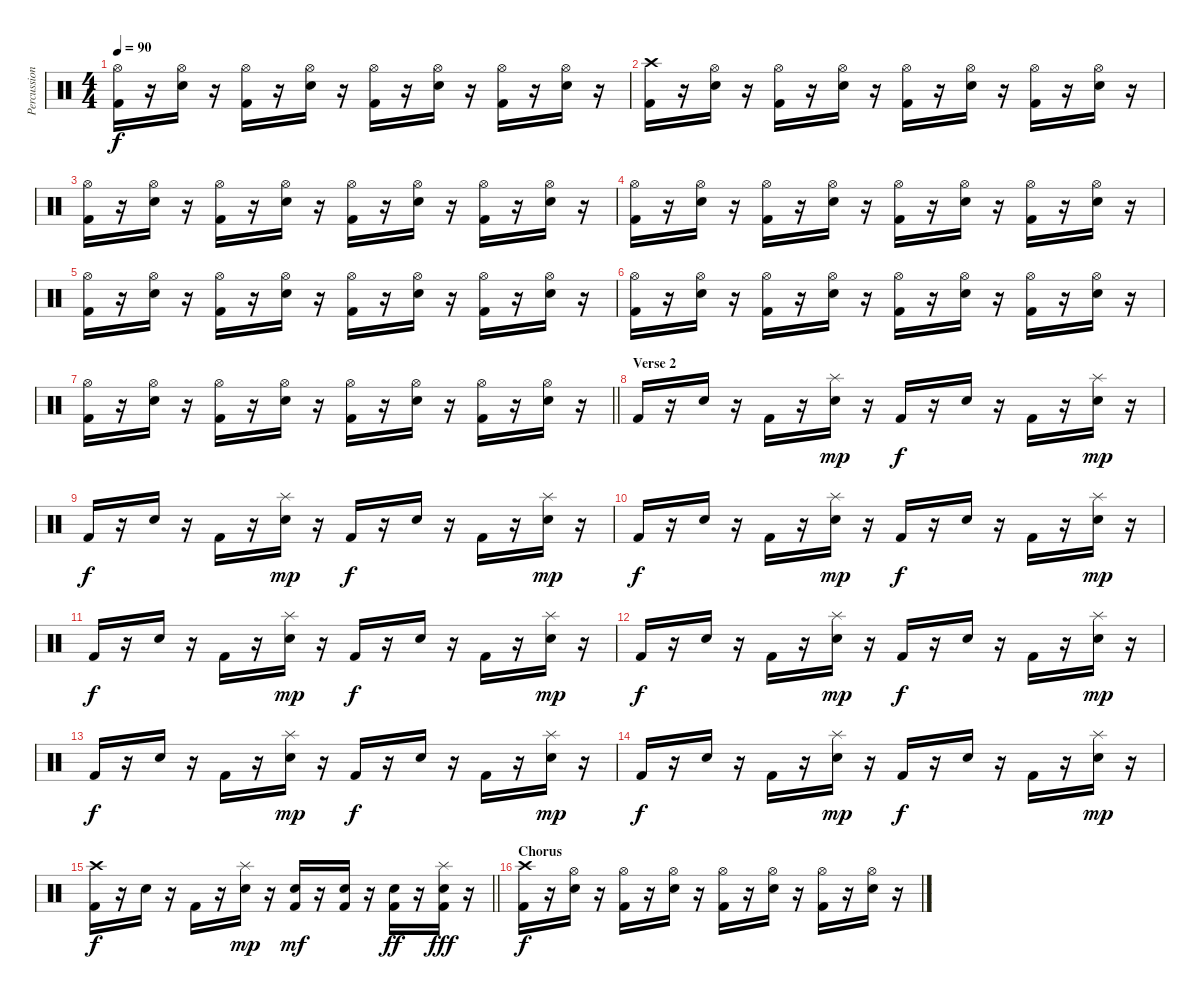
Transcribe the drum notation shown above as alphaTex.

\track ("Percussion" "Percussion") {instrument percussion}
\staff {score}
\articulation defaults
\ts (4 4)
\tempo 90
\clef neutral
\ks c
("Hi-Hat (open)" "Kick (hit) 2").16{dy f} r.16 ("Hi-Hat (open)" "Electric Snare (hit)").16 r.16 ("Hi-Hat (open)" "Kick (hit) 2").16 r.16 ("Hi-Hat (open)" "Electric Snare (hit)").16 r.16 ("Hi-Hat (open)" "Kick (hit) 2").16 r.16 ("Hi-Hat (open)" "Electric Snare (hit)").16 r.16 ("Hi-Hat (open)" "Kick (hit) 2").16 r.16 ("Hi-Hat (open)" "Electric Snare (hit)").16 r.16 |
("Crash high (hit)" "Kick (hit) 2").16 r.16 ("Hi-Hat (open)" "Electric Snare (hit)").16 r.16 ("Hi-Hat (open)" "Kick (hit) 2").16 r.16 ("Hi-Hat (open)" "Electric Snare (hit)").16 r.16 ("Hi-Hat (open)" "Kick (hit) 2").16 r.16 ("Hi-Hat (open)" "Electric Snare (hit)").16 r.16 ("Hi-Hat (open)" "Kick (hit) 2").16 r.16 ("Hi-Hat (open)" "Electric Snare (hit)").16 r.16 |
("Hi-Hat (open)" "Kick (hit) 2").16 r.16 ("Hi-Hat (open)" "Electric Snare (hit)").16 r.16 ("Hi-Hat (open)" "Kick (hit) 2").16 r.16 ("Hi-Hat (open)" "Electric Snare (hit)").16 r.16 ("Hi-Hat (open)" "Kick (hit) 2").16 r.16 ("Hi-Hat (open)" "Electric Snare (hit)").16 r.16 ("Hi-Hat (open)" "Kick (hit) 2").16 r.16 ("Hi-Hat (open)" "Electric Snare (hit)").16 r.16 |
("Hi-Hat (open)" "Kick (hit) 2").16 r.16 ("Hi-Hat (open)" "Electric Snare (hit)").16 r.16 ("Hi-Hat (open)" "Kick (hit) 2").16 r.16 ("Hi-Hat (open)" "Electric Snare (hit)").16 r.16 ("Hi-Hat (open)" "Kick (hit) 2").16 r.16 ("Hi-Hat (open)" "Electric Snare (hit)").16 r.16 ("Hi-Hat (open)" "Kick (hit) 2").16 r.16 ("Hi-Hat (open)" "Electric Snare (hit)").16 r.16 |
("Hi-Hat (open)" "Kick (hit) 2").16 r.16 ("Hi-Hat (open)" "Electric Snare (hit)").16 r.16 ("Hi-Hat (open)" "Kick (hit) 2").16 r.16 ("Hi-Hat (open)" "Electric Snare (hit)").16 r.16 ("Hi-Hat (open)" "Kick (hit) 2").16 r.16 ("Hi-Hat (open)" "Electric Snare (hit)").16 r.16 ("Hi-Hat (open)" "Kick (hit) 2").16 r.16 ("Hi-Hat (open)" "Electric Snare (hit)").16 r.16 |
("Hi-Hat (open)" "Kick (hit) 2").16 r.16 ("Hi-Hat (open)" "Electric Snare (hit)").16 r.16 ("Hi-Hat (open)" "Kick (hit) 2").16 r.16 ("Hi-Hat (open)" "Electric Snare (hit)").16 r.16 ("Hi-Hat (open)" "Kick (hit) 2").16 r.16 ("Hi-Hat (open)" "Electric Snare (hit)").16 r.16 ("Hi-Hat (open)" "Kick (hit) 2").16 r.16 ("Hi-Hat (open)" "Electric Snare (hit)").16 r.16 |
\barLineRight lightlight
("Hi-Hat (open)" "Kick (hit) 2").16 r.16 ("Hi-Hat (open)" "Electric Snare (hit)").16 r.16 ("Hi-Hat (open)" "Kick (hit) 2").16 r.16 ("Hi-Hat (open)" "Electric Snare (hit)").16 r.16 ("Hi-Hat (open)" "Kick (hit) 2").16 r.16 ("Hi-Hat (open)" "Electric Snare (hit)").16 r.16 ("Hi-Hat (open)" "Kick (hit) 2").16 r.16 ("Hi-Hat (open)" "Electric Snare (hit)").16 r.16 |
\section ("" "Verse 2")
"Kick (hit) 2".16 r.16 "Electric Snare (hit)".16 r.16 "Kick (hit) 2".16 r.16 ("Splash (hit)" "Electric Snare (hit)").16{dy mp} r.16 "Kick (hit) 2".16{dy f} r.16 "Electric Snare (hit)".16 r.16 "Kick (hit) 2".16 r.16 ("Splash (hit)" "Electric Snare (hit)").16{dy mp} r.16 |
"Kick (hit) 2".16{dy f} r.16 "Electric Snare (hit)".16 r.16 "Kick (hit) 2".16 r.16 ("Splash (hit)" "Electric Snare (hit)").16{dy mp} r.16 "Kick (hit) 2".16{dy f} r.16 "Electric Snare (hit)".16 r.16 "Kick (hit) 2".16 r.16 ("Splash (hit)" "Electric Snare (hit)").16{dy mp} r.16 |
"Kick (hit) 2".16{dy f} r.16 "Electric Snare (hit)".16 r.16 "Kick (hit) 2".16 r.16 ("Splash (hit)" "Electric Snare (hit)").16{dy mp} r.16 "Kick (hit) 2".16{dy f} r.16 "Electric Snare (hit)".16 r.16 "Kick (hit) 2".16 r.16 ("Splash (hit)" "Electric Snare (hit)").16{dy mp} r.16 |
"Kick (hit) 2".16{dy f} r.16 "Electric Snare (hit)".16 r.16 "Kick (hit) 2".16 r.16 ("Splash (hit)" "Electric Snare (hit)").16{dy mp} r.16 "Kick (hit) 2".16{dy f} r.16 "Electric Snare (hit)".16 r.16 "Kick (hit) 2".16 r.16 ("Splash (hit)" "Electric Snare (hit)").16{dy mp} r.16 |
"Kick (hit) 2".16{dy f} r.16 "Electric Snare (hit)".16 r.16 "Kick (hit) 2".16 r.16 ("Splash (hit)" "Electric Snare (hit)").16{dy mp} r.16 "Kick (hit) 2".16{dy f} r.16 "Electric Snare (hit)".16 r.16 "Kick (hit) 2".16 r.16 ("Splash (hit)" "Electric Snare (hit)").16{dy mp} r.16 |
"Kick (hit) 2".16{dy f} r.16 "Electric Snare (hit)".16 r.16 "Kick (hit) 2".16 r.16 ("Splash (hit)" "Electric Snare (hit)").16{dy mp} r.16 "Kick (hit) 2".16{dy f} r.16 "Electric Snare (hit)".16 r.16 "Kick (hit) 2".16 r.16 ("Splash (hit)" "Electric Snare (hit)").16{dy mp} r.16 |
"Kick (hit) 2".16{dy f} r.16 "Electric Snare (hit)".16 r.16 "Kick (hit) 2".16 r.16 ("Splash (hit)" "Electric Snare (hit)").16{dy mp} r.16 "Kick (hit) 2".16{dy f} r.16 "Electric Snare (hit)".16 r.16 "Kick (hit) 2".16 r.16 ("Splash (hit)" "Electric Snare (hit)").16{dy mp} r.16 |
\barLineRight lightlight
("Crash high (hit)" "Kick (hit) 2").16{dy f} r.16 "Electric Snare (hit)".16 r.16 "Kick (hit) 2".16 r.16 ("Splash (hit)" "Electric Snare (hit)").16{dy mp} r.16 ("Electric Snare (hit)" "Kick (hit) 2").16{dy mf} r.16 ("Electric Snare (hit)" "Kick (hit) 2").16 r.16 ("Electric Snare (hit)" "Kick (hit) 2").16{dy ff} r.16 ("Splash (hit)" "Electric Snare (hit)" "Kick (hit) 2").16{dy fff} r.16 |
\section ("" "Chorus")
("Crash high (hit)" "Kick (hit) 2").16{dy f} r.16 ("Hi-Hat (open)" "Electric Snare (hit)").16 r.16 ("Hi-Hat (open)" "Kick (hit) 2").16 r.16 ("Hi-Hat (open)" "Electric Snare (hit)").16 r.16 ("Hi-Hat (open)" "Kick (hit) 2").16 r.16 ("Hi-Hat (open)" "Electric Snare (hit)").16 r.16 ("Hi-Hat (open)" "Kick (hit) 2").16 r.16 ("Hi-Hat (open)" "Electric Snare (hit)").16 r.16
